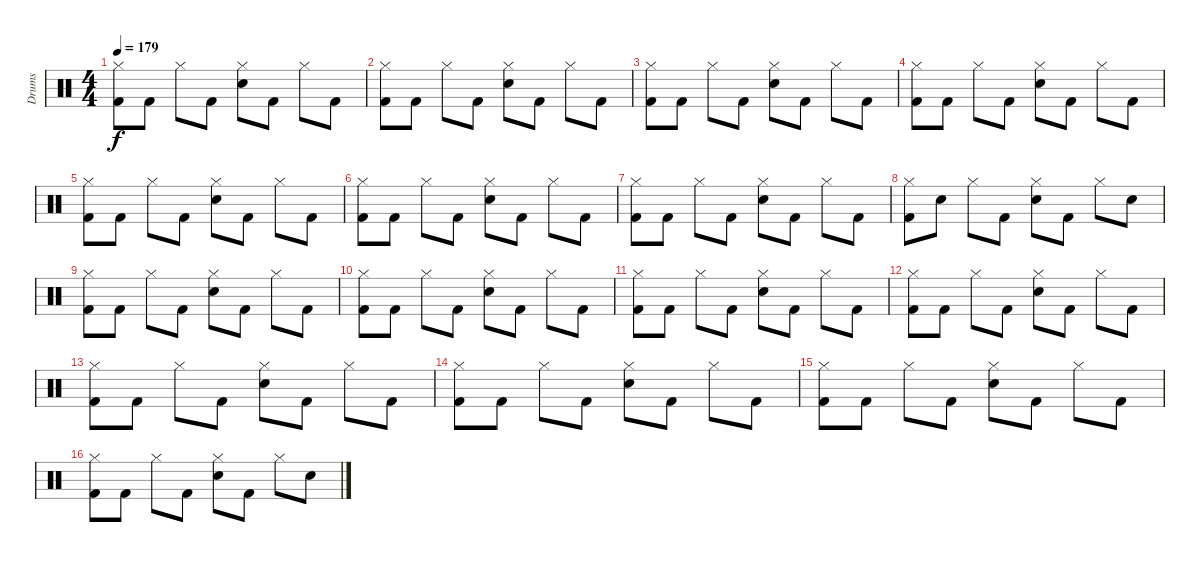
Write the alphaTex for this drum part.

\track ("Drums" "Drums") {instrument percussion}
\staff {score}
\articulation defaults
\ts (4 4)
\tempo 179
\clef neutral
\ks c
("Hi-Hat (closed)" "Kick (hit) 2").8{dy f volume 16} "Kick (hit) 2".8 "Hi-Hat (closed)".8 "Kick (hit) 2".8 ("Hi-Hat (closed)" "Electric Snare (hit)").8 "Kick (hit) 2".8 "Hi-Hat (closed)".8 "Kick (hit) 2".8 |
("Hi-Hat (closed)" "Kick (hit) 2").8 "Kick (hit) 2".8 "Hi-Hat (closed)".8 "Kick (hit) 2".8 ("Hi-Hat (closed)" "Electric Snare (hit)").8 "Kick (hit) 2".8 "Hi-Hat (closed)".8 "Kick (hit) 2".8 |
("Hi-Hat (closed)" "Kick (hit) 2").8 "Kick (hit) 2".8 "Hi-Hat (closed)".8 "Kick (hit) 2".8 ("Hi-Hat (closed)" "Electric Snare (hit)").8 "Kick (hit) 2".8 "Hi-Hat (closed)".8 "Kick (hit) 2".8 |
("Hi-Hat (closed)" "Kick (hit) 2").8 "Kick (hit) 2".8 "Hi-Hat (closed)".8 "Kick (hit) 2".8 ("Hi-Hat (closed)" "Electric Snare (hit)").8 "Kick (hit) 2".8 "Hi-Hat (closed)".8 "Kick (hit) 2".8 |
("Hi-Hat (closed)" "Kick (hit) 2").8 "Kick (hit) 2".8 "Hi-Hat (closed)".8 "Kick (hit) 2".8 ("Hi-Hat (closed)" "Electric Snare (hit)").8 "Kick (hit) 2".8 "Hi-Hat (closed)".8 "Kick (hit) 2".8 |
("Hi-Hat (closed)" "Kick (hit) 2").8 "Kick (hit) 2".8 "Hi-Hat (closed)".8 "Kick (hit) 2".8 ("Hi-Hat (closed)" "Electric Snare (hit)").8 "Kick (hit) 2".8 "Hi-Hat (closed)".8 "Kick (hit) 2".8 |
("Hi-Hat (closed)" "Kick (hit) 2").8 "Kick (hit) 2".8 "Hi-Hat (closed)".8 "Kick (hit) 2".8 ("Hi-Hat (closed)" "Electric Snare (hit)").8 "Kick (hit) 2".8 "Hi-Hat (closed)".8 "Kick (hit) 2".8 |
("Hi-Hat (closed)" "Kick (hit) 2").8 "Electric Snare (hit)".8 "Hi-Hat (closed)".8 "Kick (hit) 2".8 ("Hi-Hat (closed)" "Electric Snare (hit)").8 "Kick (hit) 2".8 "Hi-Hat (closed)".8 "Electric Snare (hit)".8 |
("Hi-Hat (closed)" "Kick (hit) 2").8{volume 16} "Kick (hit) 2".8 "Hi-Hat (closed)".8 "Kick (hit) 2".8 ("Hi-Hat (closed)" "Electric Snare (hit)").8 "Kick (hit) 2".8 "Hi-Hat (closed)".8 "Kick (hit) 2".8 |
("Hi-Hat (closed)" "Kick (hit) 2").8 "Kick (hit) 2".8 "Hi-Hat (closed)".8 "Kick (hit) 2".8 ("Hi-Hat (closed)" "Electric Snare (hit)").8 "Kick (hit) 2".8 "Hi-Hat (closed)".8 "Kick (hit) 2".8 |
("Hi-Hat (closed)" "Kick (hit) 2").8 "Kick (hit) 2".8 "Hi-Hat (closed)".8 "Kick (hit) 2".8 ("Hi-Hat (closed)" "Electric Snare (hit)").8 "Kick (hit) 2".8 "Hi-Hat (closed)".8 "Kick (hit) 2".8 |
("Hi-Hat (closed)" "Kick (hit) 2").8 "Kick (hit) 2".8 "Hi-Hat (closed)".8 "Kick (hit) 2".8 ("Hi-Hat (closed)" "Electric Snare (hit)").8 "Kick (hit) 2".8 "Hi-Hat (closed)".8 "Kick (hit) 2".8 |
("Hi-Hat (closed)" "Kick (hit) 2").8 "Kick (hit) 2".8 "Hi-Hat (closed)".8 "Kick (hit) 2".8 ("Hi-Hat (closed)" "Electric Snare (hit)").8 "Kick (hit) 2".8 "Hi-Hat (closed)".8 "Kick (hit) 2".8 |
("Hi-Hat (closed)" "Kick (hit) 2").8 "Kick (hit) 2".8 "Hi-Hat (closed)".8 "Kick (hit) 2".8 ("Hi-Hat (closed)" "Electric Snare (hit)").8 "Kick (hit) 2".8 "Hi-Hat (closed)".8 "Kick (hit) 2".8 |
("Hi-Hat (closed)" "Kick (hit) 2").8 "Kick (hit) 2".8 "Hi-Hat (closed)".8 "Kick (hit) 2".8 ("Hi-Hat (closed)" "Electric Snare (hit)").8 "Kick (hit) 2".8 "Hi-Hat (closed)".8 "Kick (hit) 2".8 |
("Hi-Hat (closed)" "Kick (hit) 2").8 "Kick (hit) 2".8 "Hi-Hat (closed)".8 "Kick (hit) 2".8 ("Hi-Hat (closed)" "Electric Snare (hit)").8 "Kick (hit) 2".8 "Hi-Hat (closed)".8 "Electric Snare (hit)".8
